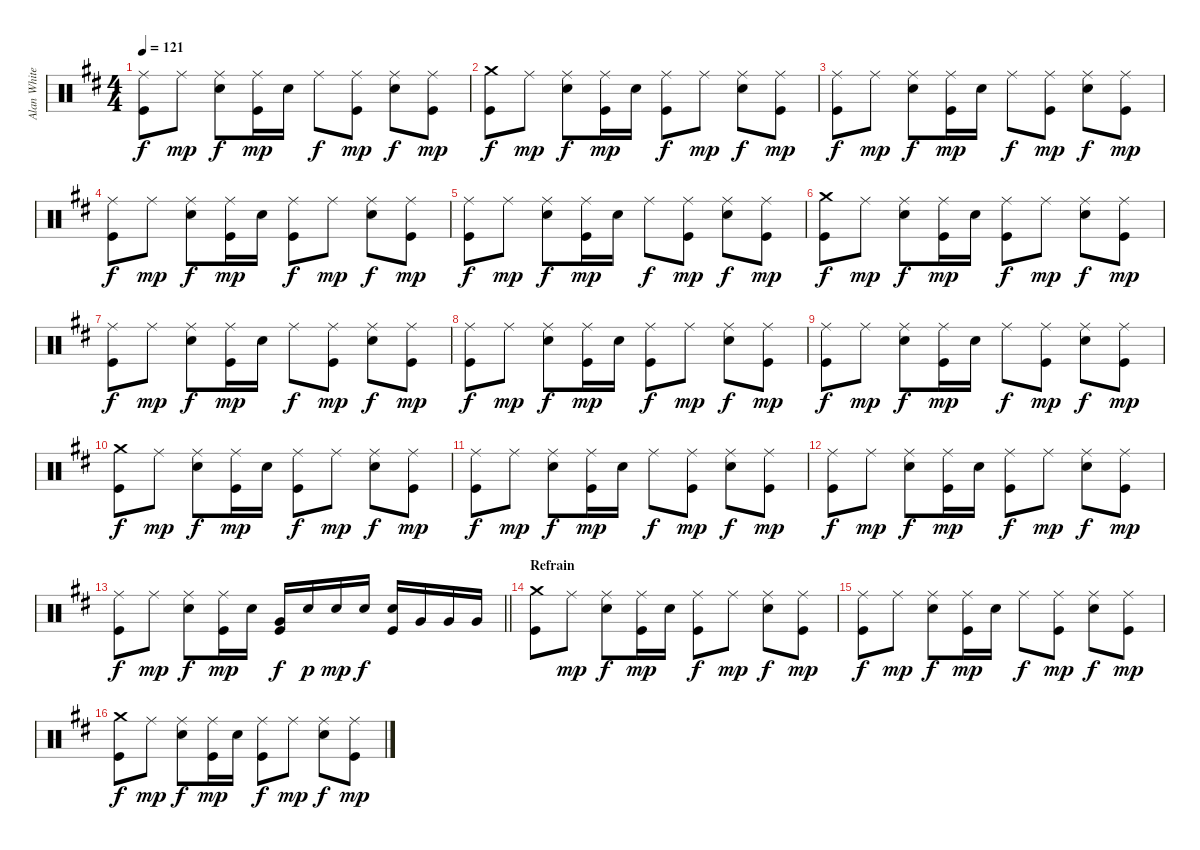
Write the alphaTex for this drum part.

\track ("Alan White" "Alan White") {instrument percussion}
\staff {score}
\articulation defaults
\ts (4 4)
\tempo 121
\clef neutral
\ks d
("Ride (middle)" "Kick (hit)").8{dy f} "Ride (middle)".8{dy mp} ("Ride (middle)" "Electric Snare (hit)").8{dy f} ("Ride (middle)" "Kick (hit)").16{dy mp} "Electric Snare (hit)".16 "Ride (middle)".8{dy f} ("Ride (middle)" "Kick (hit)").8{dy mp} ("Ride (middle)" "Electric Snare (hit)").8{dy f} ("Ride (middle)" "Kick (hit)").8{dy mp} |
("Crash medium (hit)" "Kick (hit)").8{dy f} "Ride (middle)".8{dy mp} ("Ride (middle)" "Electric Snare (hit)").8{dy f} ("Ride (middle)" "Kick (hit)").16{dy mp} "Electric Snare (hit)".16 ("Ride (middle)" "Kick (hit)").8{dy f} "Ride (middle)".8{dy mp} ("Ride (middle)" "Electric Snare (hit)").8{dy f} ("Ride (middle)" "Kick (hit)").8{dy mp} |
("Ride (middle)" "Kick (hit)").8{dy f} "Ride (middle)".8{dy mp} ("Ride (middle)" "Electric Snare (hit)").8{dy f} ("Ride (middle)" "Kick (hit)").16{dy mp} "Electric Snare (hit)".16 "Ride (middle)".8{dy f} ("Ride (middle)" "Kick (hit)").8{dy mp} ("Ride (middle)" "Electric Snare (hit)").8{dy f} ("Ride (middle)" "Kick (hit)").8{dy mp} |
("Ride (middle)" "Kick (hit)").8{dy f} "Ride (middle)".8{dy mp} ("Ride (middle)" "Electric Snare (hit)").8{dy f} ("Ride (middle)" "Kick (hit)").16{dy mp} "Electric Snare (hit)".16 ("Ride (middle)" "Kick (hit)").8{dy f} "Ride (middle)".8{dy mp} ("Ride (middle)" "Electric Snare (hit)").8{dy f} ("Ride (middle)" "Kick (hit)").8{dy mp} |
("Ride (middle)" "Kick (hit)").8{dy f} "Ride (middle)".8{dy mp} ("Ride (middle)" "Electric Snare (hit)").8{dy f} ("Ride (middle)" "Kick (hit)").16{dy mp} "Electric Snare (hit)".16 "Ride (middle)".8{dy f} ("Ride (middle)" "Kick (hit)").8{dy mp} ("Ride (middle)" "Electric Snare (hit)").8{dy f} ("Ride (middle)" "Kick (hit)").8{dy mp} |
("Crash medium (hit)" "Kick (hit)").8{dy f} "Ride (middle)".8{dy mp} ("Ride (middle)" "Electric Snare (hit)").8{dy f} ("Ride (middle)" "Kick (hit)").16{dy mp} "Electric Snare (hit)".16 ("Ride (middle)" "Kick (hit)").8{dy f} "Ride (middle)".8{dy mp} ("Ride (middle)" "Electric Snare (hit)").8{dy f} ("Ride (middle)" "Kick (hit)").8{dy mp} |
("Ride (middle)" "Kick (hit)").8{dy f} "Ride (middle)".8{dy mp} ("Ride (middle)" "Electric Snare (hit)").8{dy f} ("Ride (middle)" "Kick (hit)").16{dy mp} "Electric Snare (hit)".16 "Ride (middle)".8{dy f} ("Ride (middle)" "Kick (hit)").8{dy mp} ("Ride (middle)" "Electric Snare (hit)").8{dy f} ("Ride (middle)" "Kick (hit)").8{dy mp} |
("Ride (middle)" "Kick (hit)").8{dy f} "Ride (middle)".8{dy mp} ("Ride (middle)" "Electric Snare (hit)").8{dy f} ("Ride (middle)" "Kick (hit)").16{dy mp} "Electric Snare (hit)".16 ("Ride (middle)" "Kick (hit)").8{dy f} "Ride (middle)".8{dy mp} ("Ride (middle)" "Electric Snare (hit)").8{dy f} ("Ride (middle)" "Kick (hit)").8{dy mp} |
("Ride (middle)" "Kick (hit)").8{dy f} "Ride (middle)".8{dy mp} ("Ride (middle)" "Electric Snare (hit)").8{dy f} ("Ride (middle)" "Kick (hit)").16{dy mp} "Electric Snare (hit)".16 "Ride (middle)".8{dy f} ("Ride (middle)" "Kick (hit)").8{dy mp} ("Ride (middle)" "Electric Snare (hit)").8{dy f} ("Ride (middle)" "Kick (hit)").8{dy mp} |
("Crash medium (hit)" "Kick (hit)").8{dy f} "Ride (middle)".8{dy mp} ("Ride (middle)" "Electric Snare (hit)").8{dy f} ("Ride (middle)" "Kick (hit)").16{dy mp} "Electric Snare (hit)".16 ("Ride (middle)" "Kick (hit)").8{dy f} "Ride (middle)".8{dy mp} ("Ride (middle)" "Electric Snare (hit)").8{dy f} ("Ride (middle)" "Kick (hit)").8{dy mp} |
("Ride (middle)" "Kick (hit)").8{dy f} "Ride (middle)".8{dy mp} ("Ride (middle)" "Electric Snare (hit)").8{dy f} ("Ride (middle)" "Kick (hit)").16{dy mp} "Electric Snare (hit)".16 "Ride (middle)".8{dy f} ("Ride (middle)" "Kick (hit)").8{dy mp} ("Ride (middle)" "Electric Snare (hit)").8{dy f} ("Ride (middle)" "Kick (hit)").8{dy mp} |
("Ride (middle)" "Kick (hit)").8{dy f} "Ride (middle)".8{dy mp} ("Ride (middle)" "Electric Snare (hit)").8{dy f} ("Ride (middle)" "Kick (hit)").16{dy mp} "Electric Snare (hit)".16 ("Ride (middle)" "Kick (hit)").8{dy f} "Ride (middle)".8{dy mp} ("Ride (middle)" "Electric Snare (hit)").8{dy f} ("Ride (middle)" "Kick (hit)").8{dy mp} |
\barLineRight lightlight
("Ride (middle)" "Kick (hit)").8{dy f} "Ride (middle)".8{dy mp} ("Ride (middle)" "Electric Snare (hit)").8{dy f} ("Ride (middle)" "Kick (hit)").16{dy mp} "Electric Snare (hit)".16 ("Very Low Tom (hit)" "Kick (hit)").16{dy f} "Electric Snare (hit)".16{dy p} "Electric Snare (hit)".16{dy mp} "Electric Snare (hit)".16{dy f} ("Electric Snare (hit)" "Kick (hit)").16 "Very Low Tom (hit)".16 "Very Low Tom (hit)".16 "Very Low Tom (hit)".16 |
\section ("" "Refrain")
("Crash medium (hit)" "Kick (hit)").8 "Ride (middle)".8{dy mp} ("Ride (middle)" "Electric Snare (hit)").8{dy f} ("Ride (middle)" "Kick (hit)").16{dy mp} "Electric Snare (hit)".16 ("Ride (middle)" "Kick (hit)").8{dy f} "Ride (middle)".8{dy mp} ("Ride (middle)" "Electric Snare (hit)").8{dy f} ("Ride (middle)" "Kick (hit)").8{dy mp} |
("Ride (middle)" "Kick (hit)").8{dy f} "Ride (middle)".8{dy mp} ("Ride (middle)" "Electric Snare (hit)").8{dy f} ("Ride (middle)" "Kick (hit)").16{dy mp} "Electric Snare (hit)".16 "Ride (middle)".8{dy f} ("Ride (middle)" "Kick (hit)").8{dy mp} ("Ride (middle)" "Electric Snare (hit)").8{dy f} ("Ride (middle)" "Kick (hit)").8{dy mp} |
("Crash medium (hit)" "Kick (hit)").8{dy f} "Ride (middle)".8{dy mp} ("Ride (middle)" "Electric Snare (hit)").8{dy f} ("Ride (middle)" "Kick (hit)").16{dy mp} "Electric Snare (hit)".16 ("Ride (middle)" "Kick (hit)").8{dy f} "Ride (middle)".8{dy mp} ("Ride (middle)" "Electric Snare (hit)").8{dy f} ("Ride (middle)" "Kick (hit)").8{dy mp}
